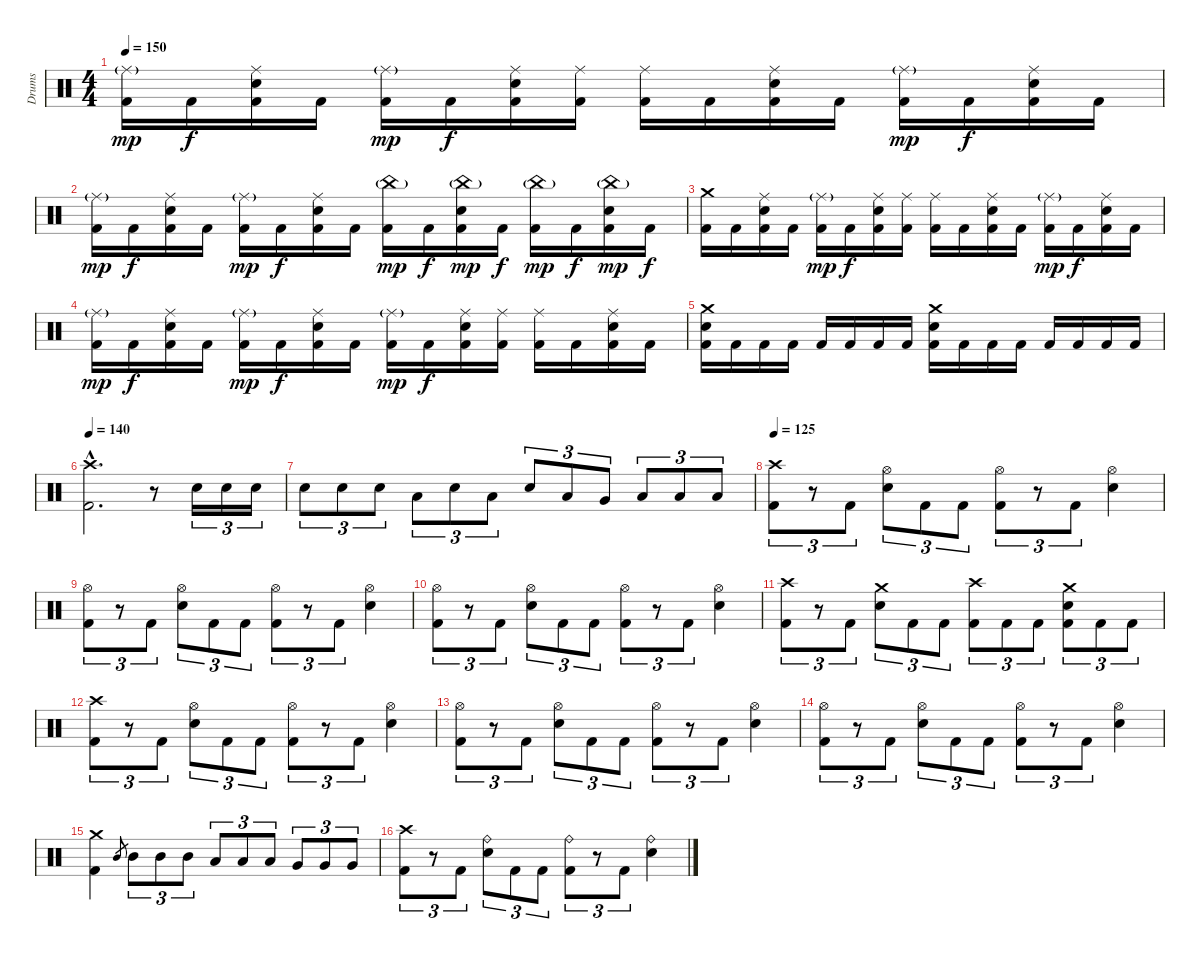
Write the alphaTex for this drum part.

\track ("Drums" "Drums") {instrument percussion}
\staff {score}
\articulation defaults
\ts (4 4)
\tempo 150
\clef neutral
\ks c
("Ride (middle)"{g} "Kick (hit) 2").16{dy mp} "Kick (hit) 2".16{dy f} ("Ride (middle)" "Electric Snare (hit)" "Kick (hit) 2").16 "Kick (hit) 2".16 ("Ride (middle)"{g} "Kick (hit) 2").16{dy mp} "Kick (hit) 2".16{dy f} ("Ride (middle)" "Electric Snare (hit)" "Kick (hit) 2").16 ("Ride (middle)" "Kick (hit) 2").16 ("Ride (middle)" "Kick (hit) 2").16 "Kick (hit) 2".16 ("Ride (middle)" "Electric Snare (hit)" "Kick (hit) 2").16 "Kick (hit) 2".16 ("Ride (middle)"{g} "Kick (hit) 2").16{dy mp} "Kick (hit) 2".16{dy f} ("Ride (middle)" "Electric Snare (hit)" "Kick (hit) 2").16 "Kick (hit) 2".16 |
("Ride (middle)"{g} "Kick (hit) 2").16{dy mp} "Kick (hit) 2".16{dy f} ("Ride (middle)" "Electric Snare (hit)" "Kick (hit) 2").16 "Kick (hit) 2".16 ("Ride (middle)"{g} "Kick (hit) 2").16{dy mp} "Kick (hit) 2".16{dy f} ("Ride (middle)" "Electric Snare (hit)" "Kick (hit) 2").16 "Kick (hit) 2".16 ("China (hit)"{g} "Kick (hit) 2").16{dy mp} "Kick (hit) 2".16{dy f} ("China (hit)"{g} "Electric Snare (hit)" "Kick (hit) 2").16{dy mp} "Kick (hit) 2".16{dy f} ("China (hit)"{g} "Kick (hit) 2").16{dy mp} "Kick (hit) 2".16{dy f} ("China (hit)"{g} "Electric Snare (hit)" "Kick (hit) 2").16{dy mp} "Kick (hit) 2".16{dy f} |
("Crash medium (hit)" "Kick (hit) 2").16 "Kick (hit) 2".16 ("Ride (middle)" "Electric Snare (hit)" "Kick (hit) 2").16 "Kick (hit) 2".16 ("Ride (middle)"{g} "Kick (hit) 2").16{dy mp} "Kick (hit) 2".16{dy f} ("Ride (middle)" "Electric Snare (hit)" "Kick (hit) 2").16 ("Ride (middle)" "Kick (hit) 2").16 ("Ride (middle)" "Kick (hit) 2").16 "Kick (hit) 2".16 ("Ride (middle)" "Electric Snare (hit)" "Kick (hit) 2").16 "Kick (hit) 2".16 ("Ride (middle)"{g} "Kick (hit) 2").16{dy mp} "Kick (hit) 2".16{dy f} ("Ride (middle)" "Electric Snare (hit)" "Kick (hit) 2").16 "Kick (hit) 2".16 |
("Ride (middle)"{g} "Kick (hit) 2").16{dy mp} "Kick (hit) 2".16{dy f} ("Ride (middle)" "Electric Snare (hit)" "Kick (hit) 2").16 "Kick (hit) 2".16 ("Ride (middle)"{g} "Kick (hit) 2").16{dy mp} "Kick (hit) 2".16{dy f} ("Ride (middle)" "Electric Snare (hit)" "Kick (hit) 2").16 "Kick (hit) 2".16 ("Ride (middle)"{g} "Kick (hit) 2").16{dy mp} "Kick (hit) 2".16{dy f} ("Ride (middle)" "Electric Snare (hit)" "Kick (hit) 2").16 ("Ride (middle)" "Kick (hit) 2").16 ("Ride (middle)" "Kick (hit) 2").16 "Kick (hit) 2".16 ("Ride (middle)" "Electric Snare (hit)" "Kick (hit) 2").16 "Kick (hit) 2".16 |
("Crash medium (hit)" "Electric Snare (hit)" "Kick (hit) 2").16 "Kick (hit) 2".16 "Kick (hit) 2".16 "Kick (hit) 2".16 "Kick (hit) 2".16 "Kick (hit) 2".16 "Kick (hit) 2".16 "Kick (hit) 2".16 ("Crash medium (hit)" "Electric Snare (hit)" "Kick (hit) 2").16 "Kick (hit) 2".16 "Kick (hit) 2".16 "Kick (hit) 2".16 "Kick (hit) 2".16 "Kick (hit) 2".16 "Kick (hit) 2".16 "Kick (hit) 2".16 |
\tempo 140
("Crash high (hit)"{hac} "Kick (hit) 2"{hac}).2{d} r.8 "Electric Snare (hit)".16{tu (3 2)} "Electric Snare (hit)".16{tu (3 2)} "Electric Snare (hit)".16{tu (3 2)} |
"Electric Snare (hit)".8{tu (3 2)} "Electric Snare (hit)".8{tu (3 2)} "Electric Snare (hit)".8{tu (3 2)} "Low Tom (hit)".8{tu (3 2)} "Electric Snare (hit)".8{tu (3 2)} "Low Tom (hit)".8{tu (3 2)} "Electric Snare (hit)".8{tu (3 2)} "Low Tom (hit)".8{tu (3 2)} "Very Low Tom (hit)".8{tu (3 2)} "Low Floor Tom (hit)".8{tu (3 2)} "Low Floor Tom (hit)".8{tu (3 2)} "Low Floor Tom (hit)".8{tu (3 2)} |
\tempo 125
("Crash high (hit)" "Kick (hit) 2").8{tu (3 2)} r.8{tu (3 2)} "Kick (hit) 2".8{tu (3 2)} ("Hi-Hat (open)" "Electric Snare (hit)").8{tu (3 2)} "Kick (hit) 2".8{tu (3 2)} "Kick (hit) 2".8{tu (3 2)} ("Hi-Hat (open)" "Kick (hit) 2").8{tu (3 2)} r.8{tu (3 2)} "Kick (hit) 2".8{tu (3 2)} ("Hi-Hat (open)" "Electric Snare (hit)").4 |
("Hi-Hat (open)" "Kick (hit) 2").8{tu (3 2)} r.8{tu (3 2)} "Kick (hit) 2".8{tu (3 2)} ("Hi-Hat (open)" "Electric Snare (hit)").8{tu (3 2)} "Kick (hit) 2".8{tu (3 2)} "Kick (hit) 2".8{tu (3 2)} ("Hi-Hat (open)" "Kick (hit) 2").8{tu (3 2)} r.8{tu (3 2)} "Kick (hit) 2".8{tu (3 2)} ("Hi-Hat (open)" "Electric Snare (hit)").4 |
("Hi-Hat (open)" "Kick (hit) 2").8{tu (3 2)} r.8{tu (3 2)} "Kick (hit) 2".8{tu (3 2)} ("Hi-Hat (open)" "Electric Snare (hit)").8{tu (3 2)} "Kick (hit) 2".8{tu (3 2)} "Kick (hit) 2".8{tu (3 2)} ("Hi-Hat (open)" "Kick (hit) 2").8{tu (3 2)} r.8{tu (3 2)} "Kick (hit) 2".8{tu (3 2)} ("Hi-Hat (open)" "Electric Snare (hit)").4 |
("Crash high (hit)" "Kick (hit) 2").8{tu (3 2)} r.8{tu (3 2)} "Kick (hit) 2".8{tu (3 2)} ("Crash medium (hit)" "Electric Snare (hit)").8{tu (3 2)} "Kick (hit) 2".8{tu (3 2)} "Kick (hit) 2".8{tu (3 2)} ("Crash high (hit)" "Kick (hit) 2").8{tu (3 2)} "Kick (hit) 2".8{tu (3 2)} "Kick (hit) 2".8{tu (3 2)} ("Crash medium (hit)" "Electric Snare (hit)" "Kick (hit) 2").8{tu (3 2)} "Kick (hit) 2".8{tu (3 2)} "Kick (hit) 2".8{tu (3 2)} |
("Crash high (hit)" "Kick (hit) 2").8{tu (3 2)} r.8{tu (3 2)} "Kick (hit) 2".8{tu (3 2)} ("Hi-Hat (open)" "Electric Snare (hit)").8{tu (3 2)} "Kick (hit) 2".8{tu (3 2)} "Kick (hit) 2".8{tu (3 2)} ("Hi-Hat (open)" "Kick (hit) 2").8{tu (3 2)} r.8{tu (3 2)} "Kick (hit) 2".8{tu (3 2)} ("Hi-Hat (open)" "Electric Snare (hit)").4 |
("Hi-Hat (open)" "Kick (hit) 2").8{tu (3 2)} r.8{tu (3 2)} "Kick (hit) 2".8{tu (3 2)} ("Hi-Hat (open)" "Electric Snare (hit)").8{tu (3 2)} "Kick (hit) 2".8{tu (3 2)} "Kick (hit) 2".8{tu (3 2)} ("Hi-Hat (open)" "Kick (hit) 2").8{tu (3 2)} r.8{tu (3 2)} "Kick (hit) 2".8{tu (3 2)} ("Hi-Hat (open)" "Electric Snare (hit)").4 |
("Hi-Hat (open)" "Kick (hit) 2").8{tu (3 2)} r.8{tu (3 2)} "Kick (hit) 2".8{tu (3 2)} ("Hi-Hat (open)" "Electric Snare (hit)").8{tu (3 2)} "Kick (hit) 2".8{tu (3 2)} "Kick (hit) 2".8{tu (3 2)} ("Hi-Hat (open)" "Kick (hit) 2").8{tu (3 2)} r.8{tu (3 2)} "Kick (hit) 2".8{tu (3 2)} ("Hi-Hat (open)" "Electric Snare (hit)").4 |
("Crash medium (hit)" "Kick (hit) 2").4 "Mid Tom (hit)".8{gr} "Mid Tom (hit)".8{tu (3 2)} "Mid Tom (hit)".8{tu (3 2)} "Mid Tom (hit)".8{tu (3 2)} "Low Tom (hit)".8{tu (3 2)} "Low Tom (hit)".8{tu (3 2)} "Low Tom (hit)".8{tu (3 2)} "Very Low Tom (hit)".8{tu (3 2)} "Very Low Tom (hit)".8{tu (3 2)} "Very Low Tom (hit)".8{tu (3 2)} |
("Crash high (hit)" "Kick (hit) 2").8{tu (3 2)} r.8{tu (3 2)} "Kick (hit) 2".8{tu (3 2)} ("Ride (bell)" "Electric Snare (hit)").8{tu (3 2)} "Kick (hit) 2".8{tu (3 2)} "Kick (hit) 2".8{tu (3 2)} ("Ride (bell)" "Kick (hit) 2").8{tu (3 2)} r.8{tu (3 2)} "Kick (hit) 2".8{tu (3 2)} ("Ride (bell)" "Electric Snare (hit)").4
